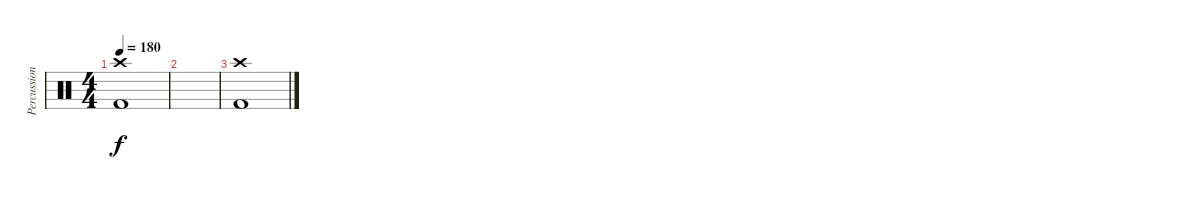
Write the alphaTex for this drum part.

\track ("Percussion" "Percussion") {instrument percussion}
\staff {score}
\articulation defaults
\ts (4 4)
\tempo 180
\clef neutral
\ks c
("Crash high (hit)" "Kick (hit) 2").1{dy f} |
|
("Crash high (hit)" "Kick (hit) 2").1
